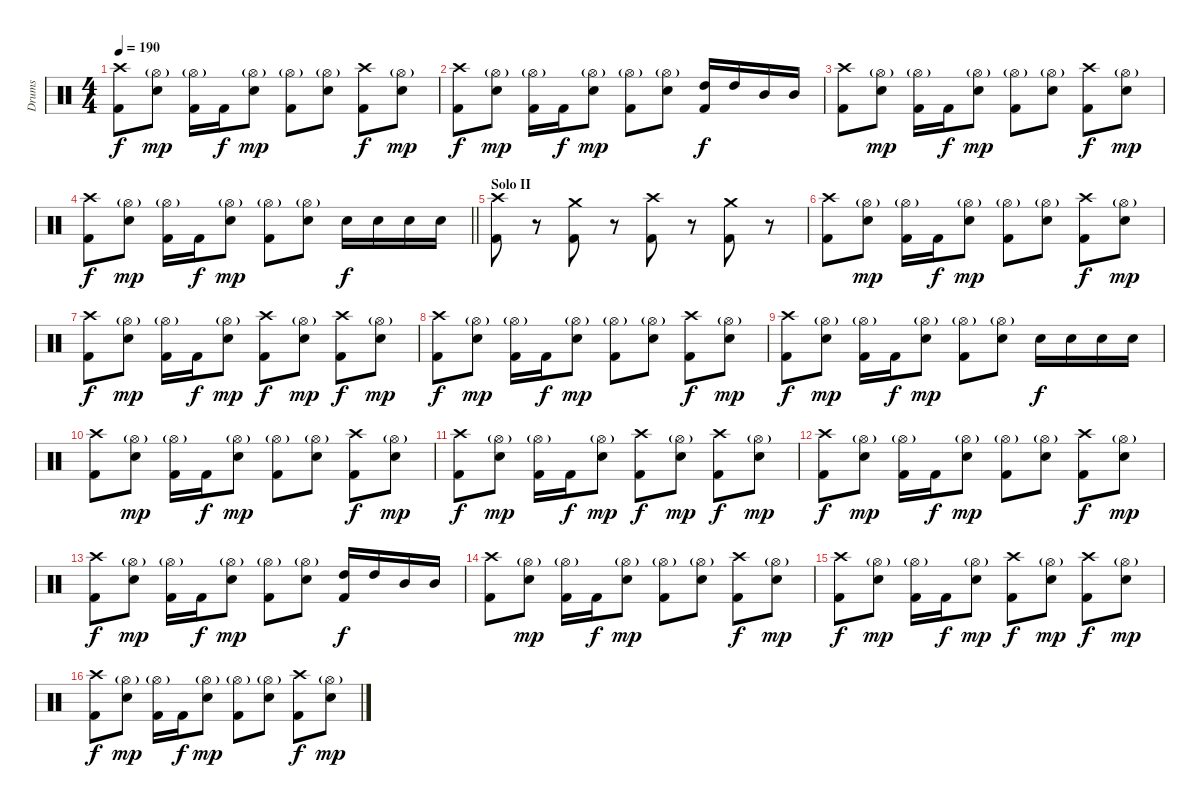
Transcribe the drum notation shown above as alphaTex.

\track ("Drums" "Drums") {instrument percussion}
\staff {score}
\articulation defaults
\ts (4 4)
\tempo 190
\clef neutral
\ks c
("Crash high (hit)" "Kick (hit) 2").8{dy f} ("Hi-Hat (open)"{g} "Electric Snare (hit)").8{dy mp} ("Hi-Hat (open)"{g} "Kick (hit) 2").16 "Kick (hit) 2".16{dy f} ("Hi-Hat (open)"{g} "Electric Snare (hit)").8{dy mp} ("Hi-Hat (open)"{g} "Kick (hit) 2").8 ("Hi-Hat (open)"{g} "Electric Snare (hit)").8 ("Crash high (hit)" "Kick (hit) 2").8{dy f} ("Hi-Hat (open)"{g} "Electric Snare (hit)").8{dy mp} |
("Crash high (hit)" "Kick (hit) 2").8{dy f} ("Hi-Hat (open)"{g} "Electric Snare (hit)").8{dy mp} ("Hi-Hat (open)"{g} "Kick (hit) 2").16 "Kick (hit) 2".16{dy f} ("Hi-Hat (open)"{g} "Electric Snare (hit)").8{dy mp} ("Hi-Hat (open)"{g} "Kick (hit) 2").8 ("Hi-Hat (open)"{g} "Electric Snare (hit)").8 ("High Tom (hit)" "Kick (hit) 2").16{dy f} "High Tom (hit)".16 "Mid Tom (hit)".16 "Mid Tom (hit)".16 |
("Crash high (hit)" "Kick (hit) 2").8 ("Hi-Hat (open)"{g} "Electric Snare (hit)").8{dy mp} ("Hi-Hat (open)"{g} "Kick (hit) 2").16 "Kick (hit) 2".16{dy f} ("Hi-Hat (open)"{g} "Electric Snare (hit)").8{dy mp} ("Hi-Hat (open)"{g} "Kick (hit) 2").8 ("Hi-Hat (open)"{g} "Electric Snare (hit)").8 ("Crash high (hit)" "Kick (hit) 2").8{dy f} ("Hi-Hat (open)"{g} "Electric Snare (hit)").8{dy mp} |
\barLineRight lightlight
("Crash high (hit)" "Kick (hit) 2").8{dy f} ("Hi-Hat (open)"{g} "Electric Snare (hit)").8{dy mp} ("Hi-Hat (open)"{g} "Kick (hit) 2").16 "Kick (hit) 2".16{dy f} ("Hi-Hat (open)"{g} "Electric Snare (hit)").8{dy mp} ("Hi-Hat (open)"{g} "Kick (hit) 2").8 ("Hi-Hat (open)"{g} "Electric Snare (hit)").8 "Electric Snare (hit)".16{dy f} "Electric Snare (hit)".16 "Electric Snare (hit)".16 "Electric Snare (hit)".16 |
\section ("" "Solo II")
("Crash high (hit)" "Kick (hit) 2").8 r.8 ("Crash medium (hit)" "Kick (hit) 2").8 r.8 ("Crash high (hit)" "Kick (hit) 2").8 r.8 ("Crash medium (hit)" "Kick (hit) 2").8 r.8 |
("Crash high (hit)" "Kick (hit) 2").8 ("Hi-Hat (open)"{g} "Electric Snare (hit)").8{dy mp} ("Hi-Hat (open)"{g} "Kick (hit) 2").16 "Kick (hit) 2".16{dy f} ("Hi-Hat (open)"{g} "Electric Snare (hit)").8{dy mp} ("Hi-Hat (open)"{g} "Kick (hit) 2").8 ("Hi-Hat (open)"{g} "Electric Snare (hit)").8 ("Crash high (hit)" "Kick (hit) 2").8{dy f} ("Hi-Hat (open)"{g} "Electric Snare (hit)").8{dy mp} |
("Crash high (hit)" "Kick (hit) 2").8{dy f} ("Hi-Hat (open)"{g} "Electric Snare (hit)").8{dy mp} ("Hi-Hat (open)"{g} "Kick (hit) 2").16 "Kick (hit) 2".16{dy f} ("Hi-Hat (open)"{g} "Electric Snare (hit)").8{dy mp} ("Crash high (hit)" "Kick (hit) 2").8{dy f} ("Hi-Hat (open)"{g} "Electric Snare (hit)").8{dy mp} ("Crash high (hit)" "Kick (hit) 2").8{dy f} ("Hi-Hat (open)"{g} "Electric Snare (hit)").8{dy mp} |
("Crash high (hit)" "Kick (hit) 2").8{dy f} ("Hi-Hat (open)"{g} "Electric Snare (hit)").8{dy mp} ("Hi-Hat (open)"{g} "Kick (hit) 2").16 "Kick (hit) 2".16{dy f} ("Hi-Hat (open)"{g} "Electric Snare (hit)").8{dy mp} ("Hi-Hat (open)"{g} "Kick (hit) 2").8 ("Hi-Hat (open)"{g} "Electric Snare (hit)").8 ("Crash high (hit)" "Kick (hit) 2").8{dy f} ("Hi-Hat (open)"{g} "Electric Snare (hit)").8{dy mp} |
("Crash high (hit)" "Kick (hit) 2").8{dy f} ("Hi-Hat (open)"{g} "Electric Snare (hit)").8{dy mp} ("Hi-Hat (open)"{g} "Kick (hit) 2").16 "Kick (hit) 2".16{dy f} ("Hi-Hat (open)"{g} "Electric Snare (hit)").8{dy mp} ("Hi-Hat (open)"{g} "Kick (hit) 2").8 ("Hi-Hat (open)"{g} "Electric Snare (hit)").8 "Electric Snare (hit)".16{dy f} "Electric Snare (hit)".16 "Electric Snare (hit)".16 "Electric Snare (hit)".16 |
("Crash high (hit)" "Kick (hit) 2").8 ("Hi-Hat (open)"{g} "Electric Snare (hit)").8{dy mp} ("Hi-Hat (open)"{g} "Kick (hit) 2").16 "Kick (hit) 2".16{dy f} ("Hi-Hat (open)"{g} "Electric Snare (hit)").8{dy mp} ("Hi-Hat (open)"{g} "Kick (hit) 2").8 ("Hi-Hat (open)"{g} "Electric Snare (hit)").8 ("Crash high (hit)" "Kick (hit) 2").8{dy f} ("Hi-Hat (open)"{g} "Electric Snare (hit)").8{dy mp} |
("Crash high (hit)" "Kick (hit) 2").8{dy f} ("Hi-Hat (open)"{g} "Electric Snare (hit)").8{dy mp} ("Hi-Hat (open)"{g} "Kick (hit) 2").16 "Kick (hit) 2".16{dy f} ("Hi-Hat (open)"{g} "Electric Snare (hit)").8{dy mp} ("Crash high (hit)" "Kick (hit) 2").8{dy f} ("Hi-Hat (open)"{g} "Electric Snare (hit)").8{dy mp} ("Crash high (hit)" "Kick (hit) 2").8{dy f} ("Hi-Hat (open)"{g} "Electric Snare (hit)").8{dy mp} |
("Crash high (hit)" "Kick (hit) 2").8{dy f} ("Hi-Hat (open)"{g} "Electric Snare (hit)").8{dy mp} ("Hi-Hat (open)"{g} "Kick (hit) 2").16 "Kick (hit) 2".16{dy f} ("Hi-Hat (open)"{g} "Electric Snare (hit)").8{dy mp} ("Hi-Hat (open)"{g} "Kick (hit) 2").8 ("Hi-Hat (open)"{g} "Electric Snare (hit)").8 ("Crash high (hit)" "Kick (hit) 2").8{dy f} ("Hi-Hat (open)"{g} "Electric Snare (hit)").8{dy mp} |
("Crash high (hit)" "Kick (hit) 2").8{dy f} ("Hi-Hat (open)"{g} "Electric Snare (hit)").8{dy mp} ("Hi-Hat (open)"{g} "Kick (hit) 2").16 "Kick (hit) 2".16{dy f} ("Hi-Hat (open)"{g} "Electric Snare (hit)").8{dy mp} ("Hi-Hat (open)"{g} "Kick (hit) 2").8 ("Hi-Hat (open)"{g} "Electric Snare (hit)").8 ("High Tom (hit)" "Kick (hit) 2").16{dy f} "High Tom (hit)".16 "Mid Tom (hit)".16 "Mid Tom (hit)".16 |
("Crash high (hit)" "Kick (hit) 2").8 ("Hi-Hat (open)"{g} "Electric Snare (hit)").8{dy mp} ("Hi-Hat (open)"{g} "Kick (hit) 2").16 "Kick (hit) 2".16{dy f} ("Hi-Hat (open)"{g} "Electric Snare (hit)").8{dy mp} ("Hi-Hat (open)"{g} "Kick (hit) 2").8 ("Hi-Hat (open)"{g} "Electric Snare (hit)").8 ("Crash high (hit)" "Kick (hit) 2").8{dy f} ("Hi-Hat (open)"{g} "Electric Snare (hit)").8{dy mp} |
("Crash high (hit)" "Kick (hit) 2").8{dy f} ("Hi-Hat (open)"{g} "Electric Snare (hit)").8{dy mp} ("Hi-Hat (open)"{g} "Kick (hit) 2").16 "Kick (hit) 2".16{dy f} ("Hi-Hat (open)"{g} "Electric Snare (hit)").8{dy mp} ("Crash high (hit)" "Kick (hit) 2").8{dy f} ("Hi-Hat (open)"{g} "Electric Snare (hit)").8{dy mp} ("Crash high (hit)" "Kick (hit) 2").8{dy f} ("Hi-Hat (open)"{g} "Electric Snare (hit)").8{dy mp} |
("Crash high (hit)" "Kick (hit) 2").8{dy f} ("Hi-Hat (open)"{g} "Electric Snare (hit)").8{dy mp} ("Hi-Hat (open)"{g} "Kick (hit) 2").16 "Kick (hit) 2".16{dy f} ("Hi-Hat (open)"{g} "Electric Snare (hit)").8{dy mp} ("Hi-Hat (open)"{g} "Kick (hit) 2").8 ("Hi-Hat (open)"{g} "Electric Snare (hit)").8 ("Crash high (hit)" "Kick (hit) 2").8{dy f} ("Hi-Hat (open)"{g} "Electric Snare (hit)").8{dy mp}
